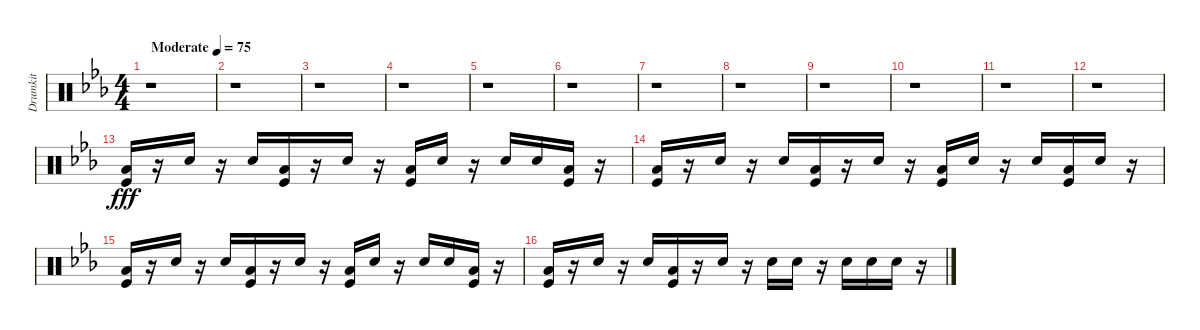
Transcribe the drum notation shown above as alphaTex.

\track ("Drumkit" "Drumkit") {instrument percussion}
\staff {score}
\articulation defaults
\ts (4 4)
\tempo (75 "Moderate")
\clef neutral
\ks eb
r.1{dy fff} |
r.1 |
r.1 |
r.1 |
r.1 |
r.1 |
r.1 |
r.1 |
r.1 |
r.1 |
r.1 |
r.1 |
("Low Floor Tom (hit)" "Kick (hit)").16 r.16 "Snare (hit) 2".16 r.16 "Snare (hit) 2".16 ("Low Floor Tom (hit)" "Kick (hit)").16 r.16 "Snare (hit) 2".16 r.16 ("Low Floor Tom (hit)" "Kick (hit)").16 "Snare (hit) 2".16 r.16 "Snare (hit) 2".16 "Snare (hit) 2".16 ("Low Floor Tom (hit)" "Kick (hit)").16 r.16 |
("Low Floor Tom (hit)" "Kick (hit)").16 r.16 "Snare (hit) 2".16 r.16 "Snare (hit) 2".16 ("Low Floor Tom (hit)" "Kick (hit)").16 r.16 "Snare (hit) 2".16 r.16 ("Low Floor Tom (hit)" "Kick (hit)").16 "Snare (hit) 2".16 r.16 "Snare (hit) 2".16 ("Low Floor Tom (hit)" "Kick (hit)").16 "Snare (hit) 2".16 r.16 |
("Low Floor Tom (hit)" "Kick (hit)").16 r.16 "Snare (hit) 2".16 r.16 "Snare (hit) 2".16 ("Low Floor Tom (hit)" "Kick (hit)").16 r.16 "Snare (hit) 2".16 r.16 ("Low Floor Tom (hit)" "Kick (hit)").16 "Snare (hit) 2".16 r.16 "Snare (hit) 2".16 "Snare (hit) 2".16 ("Low Floor Tom (hit)" "Kick (hit)").16 r.16 |
("Low Floor Tom (hit)" "Kick (hit)").16 r.16 "Snare (hit) 2".16 r.16 "Snare (hit) 2".16 ("Low Floor Tom (hit)" "Kick (hit)").16 r.16 "Snare (hit) 2".16 r.16 "Snare (hit) 2".16 "Snare (hit) 2".16 r.16 "Snare (hit) 2".16 "Snare (hit) 2".16 "Snare (hit) 2".16 r.16
